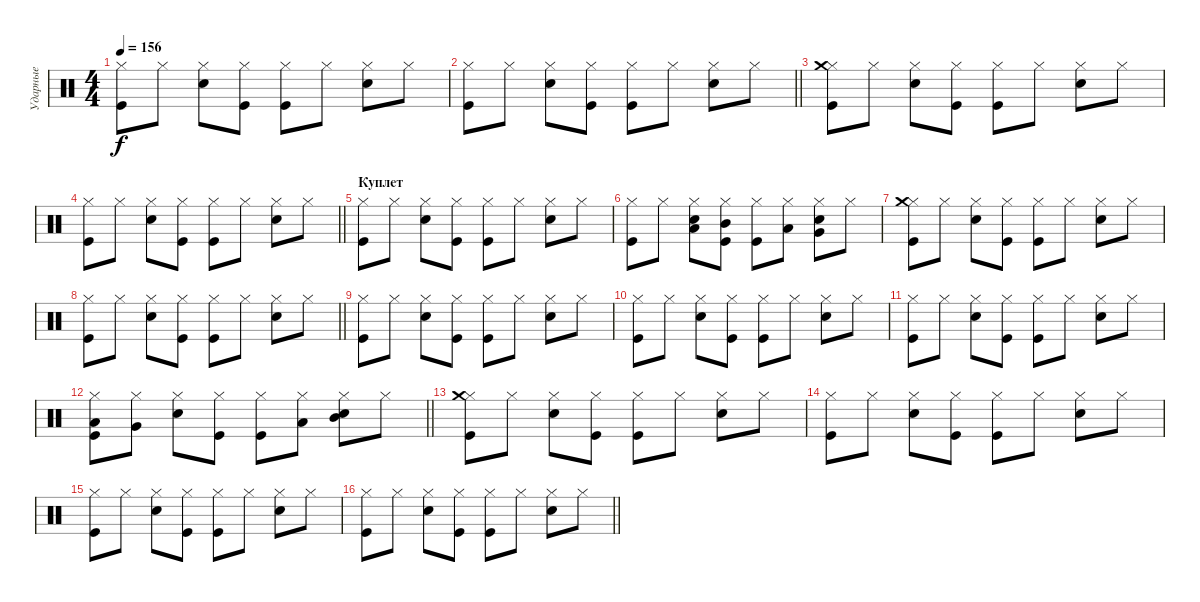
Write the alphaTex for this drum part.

\track ("Ударные" "Ударные") {instrument percussion}
\staff {score}
\articulation defaults
\ts (4 4)
\tempo 156
\clef neutral
\ks c
("Hi-Hat (closed)" "Kick (hit)").8{dy f} "Hi-Hat (closed)".8 ("Hi-Hat (closed)" "Snare (hit) 2").8 ("Hi-Hat (closed)" "Kick (hit)").8 ("Hi-Hat (closed)" "Kick (hit)").8 "Hi-Hat (closed)".8 ("Hi-Hat (closed)" "Snare (hit) 2").8 "Hi-Hat (closed)".8 |
\barLineRight lightlight
("Hi-Hat (closed)" "Kick (hit)").8 "Hi-Hat (closed)".8 ("Hi-Hat (closed)" "Snare (hit) 2").8 ("Hi-Hat (closed)" "Kick (hit)").8 ("Hi-Hat (closed)" "Kick (hit)").8 "Hi-Hat (closed)".8 ("Hi-Hat (closed)" "Snare (hit) 2").8 "Hi-Hat (closed)".8 |
("Hi-Hat (closed)" "Kick (hit)" "Crash medium (hit)").8 "Hi-Hat (closed)".8 ("Hi-Hat (closed)" "Snare (hit) 2").8 ("Hi-Hat (closed)" "Kick (hit)").8 ("Hi-Hat (closed)" "Kick (hit)").8 "Hi-Hat (closed)".8 ("Hi-Hat (closed)" "Snare (hit) 2").8 "Hi-Hat (closed)".8 |
\barLineRight lightlight
("Hi-Hat (closed)" "Kick (hit)").8 "Hi-Hat (closed)".8 ("Hi-Hat (closed)" "Snare (hit) 2").8 ("Hi-Hat (closed)" "Kick (hit)").8 ("Hi-Hat (closed)" "Kick (hit)").8 "Hi-Hat (closed)".8 ("Hi-Hat (closed)" "Snare (hit) 2").8 "Hi-Hat (closed)".8 |
\section ("" "Куплет")
("Hi-Hat (closed)" "Kick (hit)").8 "Hi-Hat (closed)".8 ("Hi-Hat (closed)" "Snare (hit) 2").8 ("Hi-Hat (closed)" "Kick (hit)").8 ("Hi-Hat (closed)" "Kick (hit)").8 "Hi-Hat (closed)".8 ("Hi-Hat (closed)" "Snare (hit) 2").8 "Hi-Hat (closed)".8 |
("Hi-Hat (closed)" "Kick (hit)").8 "Hi-Hat (closed)".8 ("Hi-Hat (closed)" "Snare (hit) 2" "Low Tom (hit)").8 ("Hi-Hat (closed)" "Kick (hit)" "Mid Tom (hit)").8 ("Hi-Hat (closed)" "Kick (hit)").8 ("Hi-Hat (closed)" "Low Tom (hit)").8 ("Hi-Hat (closed)" "Snare (hit) 2" "Very Low Tom (hit)").8 "Hi-Hat (closed)".8 |
("Hi-Hat (closed)" "Kick (hit)" "Crash medium (hit)").8 "Hi-Hat (closed)".8 ("Hi-Hat (closed)" "Snare (hit) 2").8 ("Hi-Hat (closed)" "Kick (hit)").8 ("Hi-Hat (closed)" "Kick (hit)").8 "Hi-Hat (closed)".8 ("Hi-Hat (closed)" "Snare (hit) 2").8 "Hi-Hat (closed)".8 |
\barLineRight lightlight
("Hi-Hat (closed)" "Kick (hit)").8 "Hi-Hat (closed)".8 ("Hi-Hat (closed)" "Snare (hit) 2").8 ("Hi-Hat (closed)" "Kick (hit)").8 ("Hi-Hat (closed)" "Kick (hit)").8 "Hi-Hat (closed)".8 ("Hi-Hat (closed)" "Snare (hit) 2").8 "Hi-Hat (closed)".8 |
("Hi-Hat (closed)" "Kick (hit)").8 "Hi-Hat (closed)".8 ("Hi-Hat (closed)" "Snare (hit) 2").8 ("Hi-Hat (closed)" "Kick (hit)").8 ("Hi-Hat (closed)" "Kick (hit)").8 "Hi-Hat (closed)".8 ("Hi-Hat (closed)" "Snare (hit) 2").8 "Hi-Hat (closed)".8 |
("Hi-Hat (closed)" "Kick (hit)").8 "Hi-Hat (closed)".8 ("Hi-Hat (closed)" "Snare (hit) 2").8 ("Hi-Hat (closed)" "Kick (hit)").8 ("Hi-Hat (closed)" "Kick (hit)").8 "Hi-Hat (closed)".8 ("Hi-Hat (closed)" "Snare (hit) 2").8 "Hi-Hat (closed)".8 |
("Hi-Hat (closed)" "Kick (hit)").8 "Hi-Hat (closed)".8 ("Hi-Hat (closed)" "Snare (hit) 2").8 ("Hi-Hat (closed)" "Kick (hit)").8 ("Hi-Hat (closed)" "Kick (hit)").8 "Hi-Hat (closed)".8 ("Hi-Hat (closed)" "Snare (hit) 2").8 "Hi-Hat (closed)".8 |
\barLineRight lightlight
("Hi-Hat (closed)" "Kick (hit)" "Low Floor Tom (hit)").8 ("Hi-Hat (closed)" "Very Low Tom (hit)").8 ("Hi-Hat (closed)" "Snare (hit) 2").8 ("Hi-Hat (closed)" "Kick (hit)").8 ("Hi-Hat (closed)" "Kick (hit)").8 ("Hi-Hat (closed)" "Low Tom (hit)").8 ("Hi-Hat (closed)" "Snare (hit) 2" "Mid Tom (hit)").8 "Hi-Hat (closed)".8 |
("Hi-Hat (closed)" "Kick (hit)" "Crash medium (hit)").8 "Hi-Hat (closed)".8 ("Hi-Hat (closed)" "Snare (hit) 2").8 ("Hi-Hat (closed)" "Kick (hit)").8 ("Hi-Hat (closed)" "Kick (hit)").8 "Hi-Hat (closed)".8 ("Hi-Hat (closed)" "Snare (hit) 2").8 "Hi-Hat (closed)".8 |
("Hi-Hat (closed)" "Kick (hit)").8 "Hi-Hat (closed)".8 ("Hi-Hat (closed)" "Snare (hit) 2").8 ("Hi-Hat (closed)" "Kick (hit)").8 ("Hi-Hat (closed)" "Kick (hit)").8 "Hi-Hat (closed)".8 ("Hi-Hat (closed)" "Snare (hit) 2").8 "Hi-Hat (closed)".8 |
("Hi-Hat (closed)" "Kick (hit)").8 "Hi-Hat (closed)".8 ("Hi-Hat (closed)" "Snare (hit) 2").8 ("Hi-Hat (closed)" "Kick (hit)").8 ("Hi-Hat (closed)" "Kick (hit)").8 "Hi-Hat (closed)".8 ("Hi-Hat (closed)" "Snare (hit) 2").8 "Hi-Hat (closed)".8 |
\barLineRight lightlight
("Hi-Hat (closed)" "Kick (hit)").8 "Hi-Hat (closed)".8 ("Hi-Hat (closed)" "Snare (hit) 2").8 ("Hi-Hat (closed)" "Kick (hit)").8 ("Hi-Hat (closed)" "Kick (hit)").8 "Hi-Hat (closed)".8 ("Hi-Hat (closed)" "Snare (hit) 2").8 "Hi-Hat (closed)".8
